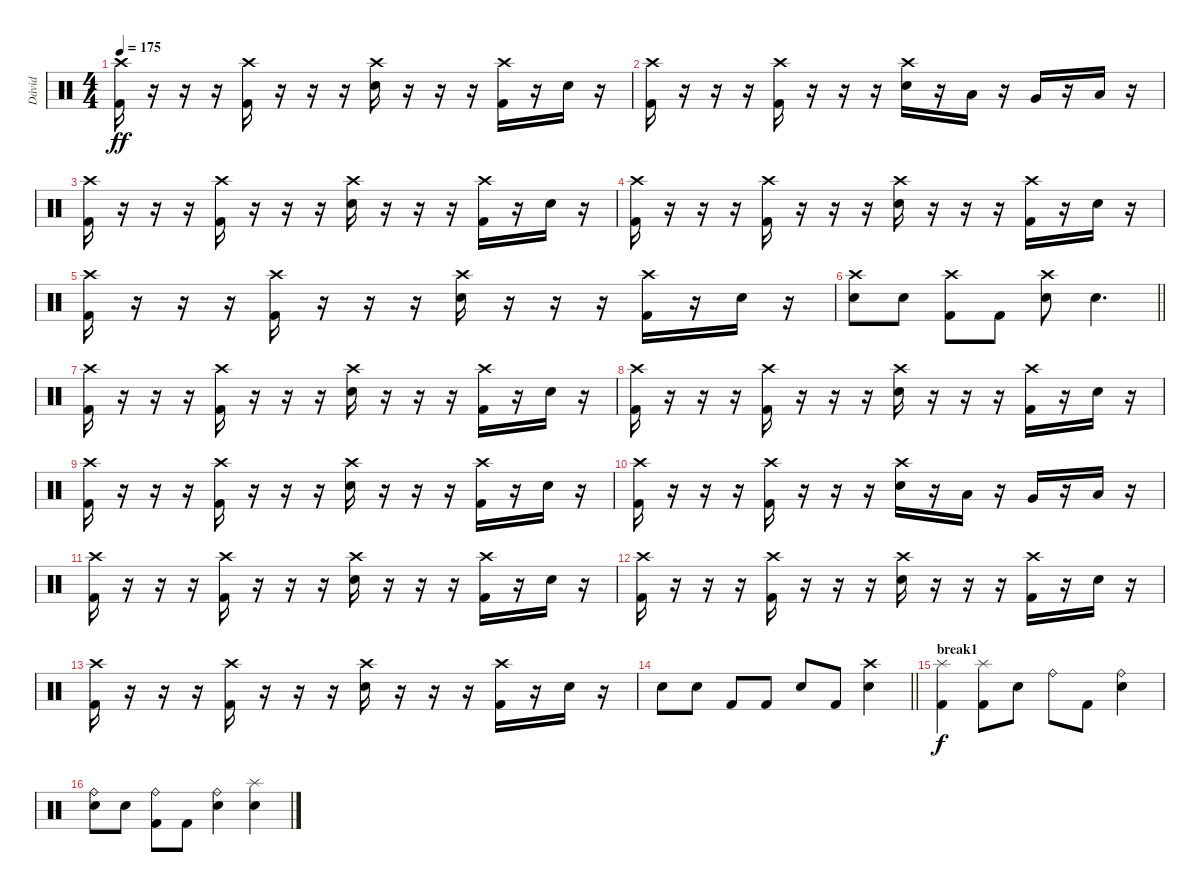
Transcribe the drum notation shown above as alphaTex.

\track ("Dávid" "Dávid") {instrument percussion}
\staff {score}
\articulation defaults
\ts (4 4)
\tempo 175
\clef neutral
\ks c
("Crash high (hit)" "Kick (hit) 2").16{dy ff} r.16 r.16 r.16 ("Crash high (hit)" "Kick (hit) 2").16 r.16 r.16 r.16 ("Crash high (hit)" "Electric Snare (hit)").16 r.16 r.16 r.16 ("Crash high (hit)" "Kick (hit) 2").16 r.16 "Electric Snare (hit)".16 r.16 |
("Crash high (hit)" "Kick (hit) 2").16 r.16 r.16 r.16 ("Crash high (hit)" "Kick (hit) 2").16 r.16 r.16 r.16 ("Crash high (hit)" "Electric Snare (hit)").16 r.16 "Low Tom (hit)".16 r.16 "Very Low Tom (hit)".16 r.16 "Low Floor Tom (hit)".16 r.16 |
("Crash high (hit)" "Kick (hit) 2").16 r.16 r.16 r.16 ("Crash high (hit)" "Kick (hit) 2").16 r.16 r.16 r.16 ("Crash high (hit)" "Electric Snare (hit)").16 r.16 r.16 r.16 ("Crash high (hit)" "Kick (hit) 2").16 r.16 "Electric Snare (hit)".16 r.16 |
("Crash high (hit)" "Kick (hit) 2").16 r.16 r.16 r.16 ("Crash high (hit)" "Kick (hit) 2").16 r.16 r.16 r.16 ("Crash high (hit)" "Electric Snare (hit)").16 r.16 r.16 r.16 ("Crash high (hit)" "Kick (hit) 2").16 r.16 "Electric Snare (hit)".16 r.16 |
("Crash high (hit)" "Kick (hit) 2").16 r.16 r.16 r.16 ("Crash high (hit)" "Kick (hit) 2").16 r.16 r.16 r.16 ("Crash high (hit)" "Electric Snare (hit)").16 r.16 r.16 r.16 ("Crash high (hit)" "Kick (hit) 2").16 r.16 "Electric Snare (hit)".16 r.16 |
\barLineRight lightlight
("Crash high (hit)" "Electric Snare (hit)").8 "Electric Snare (hit)".8 ("Crash high (hit)" "Kick (hit) 2").8 "Kick (hit) 2".8 ("Crash high (hit)" "Electric Snare (hit)").8 "Electric Snare (hit)".4{d} |
("Crash high (hit)" "Kick (hit) 2").16 r.16 r.16 r.16 ("Crash high (hit)" "Kick (hit) 2").16 r.16 r.16 r.16 ("Crash high (hit)" "Electric Snare (hit)").16 r.16 r.16 r.16 ("Crash high (hit)" "Kick (hit) 2").16 r.16 "Electric Snare (hit)".16 r.16 |
("Crash high (hit)" "Kick (hit) 2").16 r.16 r.16 r.16 ("Crash high (hit)" "Kick (hit) 2").16 r.16 r.16 r.16 ("Crash high (hit)" "Electric Snare (hit)").16 r.16 r.16 r.16 ("Crash high (hit)" "Kick (hit) 2").16 r.16 "Electric Snare (hit)".16 r.16 |
("Crash high (hit)" "Kick (hit) 2").16 r.16 r.16 r.16 ("Crash high (hit)" "Kick (hit) 2").16 r.16 r.16 r.16 ("Crash high (hit)" "Electric Snare (hit)").16 r.16 r.16 r.16 ("Crash high (hit)" "Kick (hit) 2").16 r.16 "Electric Snare (hit)".16 r.16 |
("Crash high (hit)" "Kick (hit) 2").16 r.16 r.16 r.16 ("Crash high (hit)" "Kick (hit) 2").16 r.16 r.16 r.16 ("Crash high (hit)" "Electric Snare (hit)").16 r.16 "Low Tom (hit)".16 r.16 "Very Low Tom (hit)".16 r.16 "Low Floor Tom (hit)".16 r.16 |
("Crash high (hit)" "Kick (hit) 2").16 r.16 r.16 r.16 ("Crash high (hit)" "Kick (hit) 2").16 r.16 r.16 r.16 ("Crash high (hit)" "Electric Snare (hit)").16 r.16 r.16 r.16 ("Crash high (hit)" "Kick (hit) 2").16 r.16 "Electric Snare (hit)".16 r.16 |
("Crash high (hit)" "Kick (hit) 2").16 r.16 r.16 r.16 ("Crash high (hit)" "Kick (hit) 2").16 r.16 r.16 r.16 ("Crash high (hit)" "Electric Snare (hit)").16 r.16 r.16 r.16 ("Crash high (hit)" "Kick (hit) 2").16 r.16 "Electric Snare (hit)".16 r.16 |
("Crash high (hit)" "Kick (hit) 2").16 r.16 r.16 r.16 ("Crash high (hit)" "Kick (hit) 2").16 r.16 r.16 r.16 ("Crash high (hit)" "Electric Snare (hit)").16 r.16 r.16 r.16 ("Crash high (hit)" "Kick (hit) 2").16 r.16 "Electric Snare (hit)".16 r.16 |
\barLineRight lightlight "Electric Snare (hit)".8 "Electric Snare (hit)".8 "Kick (hit) 2".8 "Kick (hit) 2".8 "Electric Snare (hit)".8 "Kick (hit) 2".8
("Crash high (hit)" "Electric Snare (hit)").4 |
\section ("" "break1")
("Splash (hit)" "Kick (hit) 2").4{dy f} ("Splash (hit)" "Kick (hit) 2").8 "Electric Snare (hit)".8 "Ride (bell)".8 "Kick (hit) 2".8 ("Ride (bell)" "Electric Snare (hit)").4 |
("Ride (bell)" "Electric Snare (hit)").8 "Electric Snare (hit)".8 ("Ride (bell)" "Kick (hit) 2").8 "Kick (hit) 2".8 ("Ride (bell)" "Electric Snare (hit)").4 ("Splash (hit)" "Electric Snare (hit)").4
